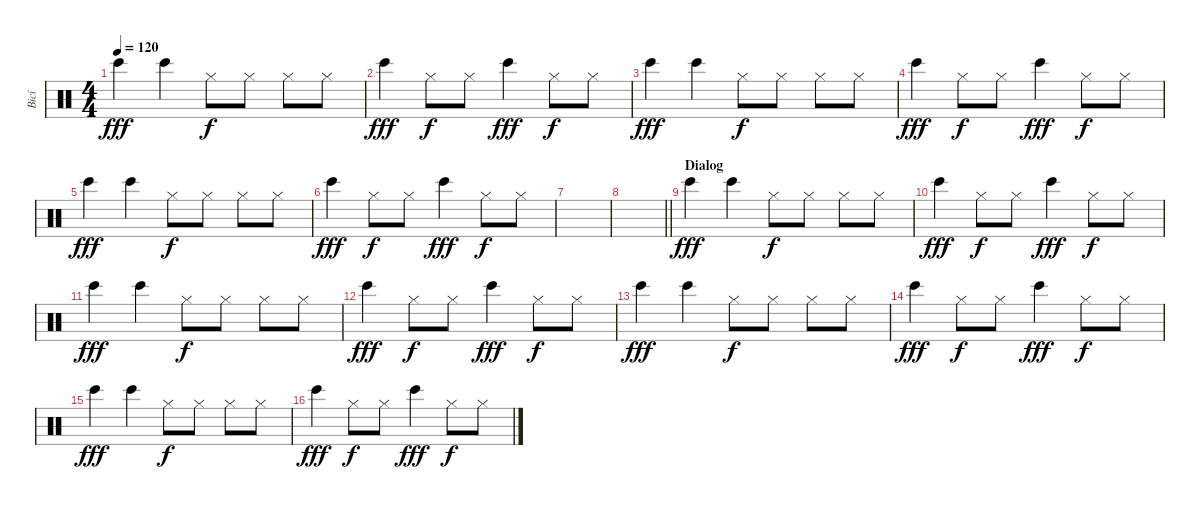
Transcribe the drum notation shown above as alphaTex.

\track ("Bicí" "Bicí") {instrument percussion}
\staff {score}
\articulation defaults
\ts (4 4)
\tempo 120
\clef neutral
\ks c "Bongo High (hit)".4{dy fff} "Bongo High (hit)".4 "Hi-Hat (closed)".8{dy f} "Hi-Hat (closed)".8 "Hi-Hat (closed)".8 "Hi-Hat (closed)".8
|
"Bongo High (hit)".4{dy fff} "Hi-Hat (closed)".8{dy f} "Hi-Hat (closed)".8 "Bongo High (hit)".4{dy fff} "Hi-Hat (closed)".8{dy f} "Hi-Hat (closed)".8 |
"Bongo High (hit)".4{dy fff} "Bongo High (hit)".4 "Hi-Hat (closed)".8{dy f} "Hi-Hat (closed)".8 "Hi-Hat (closed)".8 "Hi-Hat (closed)".8 |
"Bongo High (hit)".4{dy fff} "Hi-Hat (closed)".8{dy f} "Hi-Hat (closed)".8 "Bongo High (hit)".4{dy fff} "Hi-Hat (closed)".8{dy f} "Hi-Hat (closed)".8 |
"Bongo High (hit)".4{dy fff} "Bongo High (hit)".4 "Hi-Hat (closed)".8{dy f} "Hi-Hat (closed)".8 "Hi-Hat (closed)".8 "Hi-Hat (closed)".8 |
"Bongo High (hit)".4{dy fff} "Hi-Hat (closed)".8{dy f} "Hi-Hat (closed)".8 "Bongo High (hit)".4{dy fff} "Hi-Hat (closed)".8{dy f} "Hi-Hat (closed)".8 |
|
\barLineRight lightlight
|
\section ("" "Dialog")
"Bongo High (hit)".4{dy fff} "Bongo High (hit)".4 "Hi-Hat (closed)".8{dy f} "Hi-Hat (closed)".8 "Hi-Hat (closed)".8 "Hi-Hat (closed)".8 |
"Bongo High (hit)".4{dy fff} "Hi-Hat (closed)".8{dy f} "Hi-Hat (closed)".8 "Bongo High (hit)".4{dy fff} "Hi-Hat (closed)".8{dy f} "Hi-Hat (closed)".8 |
"Bongo High (hit)".4{dy fff} "Bongo High (hit)".4 "Hi-Hat (closed)".8{dy f} "Hi-Hat (closed)".8 "Hi-Hat (closed)".8 "Hi-Hat (closed)".8 |
"Bongo High (hit)".4{dy fff} "Hi-Hat (closed)".8{dy f} "Hi-Hat (closed)".8 "Bongo High (hit)".4{dy fff} "Hi-Hat (closed)".8{dy f} "Hi-Hat (closed)".8 |
"Bongo High (hit)".4{dy fff} "Bongo High (hit)".4 "Hi-Hat (closed)".8{dy f} "Hi-Hat (closed)".8 "Hi-Hat (closed)".8 "Hi-Hat (closed)".8 |
"Bongo High (hit)".4{dy fff} "Hi-Hat (closed)".8{dy f} "Hi-Hat (closed)".8 "Bongo High (hit)".4{dy fff} "Hi-Hat (closed)".8{dy f} "Hi-Hat (closed)".8 |
"Bongo High (hit)".4{dy fff} "Bongo High (hit)".4 "Hi-Hat (closed)".8{dy f} "Hi-Hat (closed)".8 "Hi-Hat (closed)".8 "Hi-Hat (closed)".8 |
"Bongo High (hit)".4{dy fff} "Hi-Hat (closed)".8{dy f} "Hi-Hat (closed)".8 "Bongo High (hit)".4{dy fff} "Hi-Hat (closed)".8{dy f} "Hi-Hat (closed)".8
